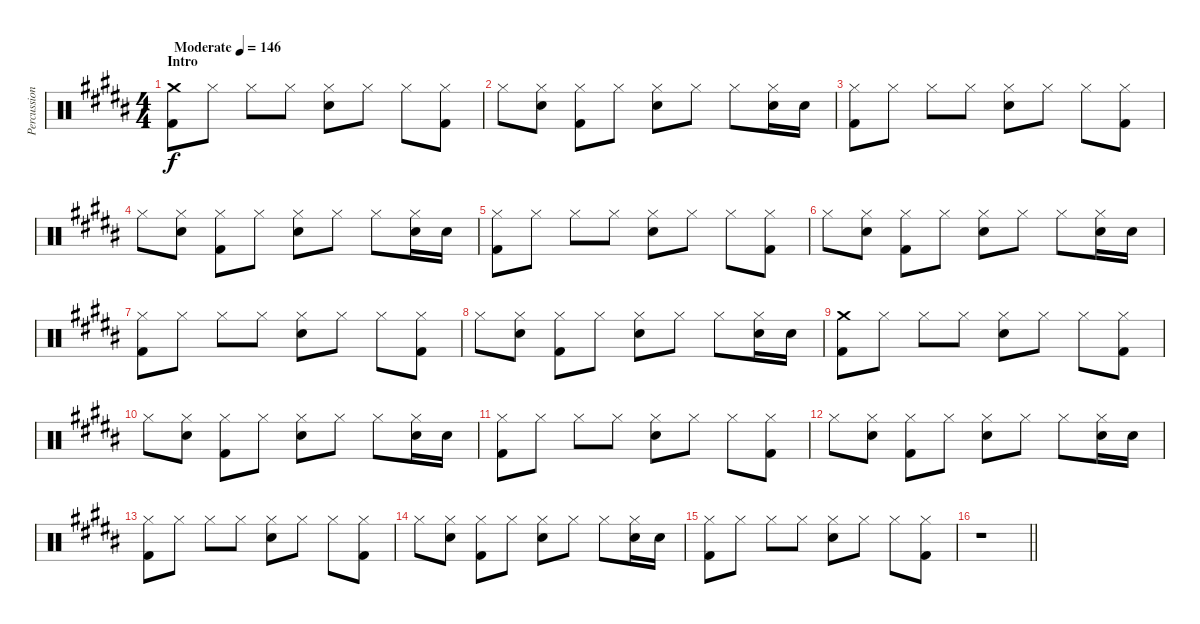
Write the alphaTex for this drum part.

\track ("Percussion" "Percussion") {instrument percussion}
\staff {score}
\articulation defaults
\ts (4 4)
\section ("" "Intro")
\tempo (146 "Moderate")
\clef neutral
\ks b
("Crash medium (hit)" "Kick (hit) 2").8{dy f} "Hi-Hat (closed)".8 "Hi-Hat (closed)".8 "Hi-Hat (closed)".8 ("Hi-Hat (closed)" "Snare (hit) 2").8 "Hi-Hat (closed)".8 "Hi-Hat (closed)".8 ("Hi-Hat (closed)" "Kick (hit) 2").8 |
"Hi-Hat (closed)".8 ("Hi-Hat (closed)" "Snare (hit) 2").8 ("Hi-Hat (closed)" "Kick (hit) 2").8 "Hi-Hat (closed)".8 ("Hi-Hat (closed)" "Snare (hit) 2").8 "Hi-Hat (closed)".8 "Hi-Hat (closed)".8 ("Hi-Hat (closed)" "Snare (hit) 2").16 "Snare (hit) 2".16 |
("Hi-Hat (closed)" "Kick (hit) 2").8 "Hi-Hat (closed)".8 "Hi-Hat (closed)".8 "Hi-Hat (closed)".8 ("Hi-Hat (closed)" "Snare (hit) 2").8 "Hi-Hat (closed)".8 "Hi-Hat (closed)".8 ("Hi-Hat (closed)" "Kick (hit) 2").8 |
"Hi-Hat (closed)".8 ("Hi-Hat (closed)" "Snare (hit) 2").8 ("Hi-Hat (closed)" "Kick (hit) 2").8 "Hi-Hat (closed)".8 ("Hi-Hat (closed)" "Snare (hit) 2").8 "Hi-Hat (closed)".8 "Hi-Hat (closed)".8 ("Hi-Hat (closed)" "Snare (hit) 2").16 "Snare (hit) 2".16 |
("Hi-Hat (closed)" "Kick (hit) 2").8 "Hi-Hat (closed)".8 "Hi-Hat (closed)".8 "Hi-Hat (closed)".8 ("Hi-Hat (closed)" "Snare (hit) 2").8 "Hi-Hat (closed)".8 "Hi-Hat (closed)".8 ("Hi-Hat (closed)" "Kick (hit) 2").8 |
"Hi-Hat (closed)".8 ("Hi-Hat (closed)" "Snare (hit) 2").8 ("Hi-Hat (closed)" "Kick (hit) 2").8 "Hi-Hat (closed)".8 ("Hi-Hat (closed)" "Snare (hit) 2").8 "Hi-Hat (closed)".8 "Hi-Hat (closed)".8 ("Hi-Hat (closed)" "Snare (hit) 2").16 "Snare (hit) 2".16 |
("Hi-Hat (closed)" "Kick (hit) 2").8 "Hi-Hat (closed)".8 "Hi-Hat (closed)".8 "Hi-Hat (closed)".8 ("Hi-Hat (closed)" "Snare (hit) 2").8 "Hi-Hat (closed)".8 "Hi-Hat (closed)".8 ("Hi-Hat (closed)" "Kick (hit) 2").8 |
"Hi-Hat (closed)".8 ("Hi-Hat (closed)" "Snare (hit) 2").8 ("Hi-Hat (closed)" "Kick (hit) 2").8 "Hi-Hat (closed)".8 ("Hi-Hat (closed)" "Snare (hit) 2").8 "Hi-Hat (closed)".8 "Hi-Hat (closed)".8 ("Hi-Hat (closed)" "Snare (hit) 2").16 "Snare (hit) 2".16 |
("Crash medium (hit)" "Kick (hit) 2").8 "Hi-Hat (closed)".8 "Hi-Hat (closed)".8 "Hi-Hat (closed)".8 ("Hi-Hat (closed)" "Snare (hit) 2").8 "Hi-Hat (closed)".8 "Hi-Hat (closed)".8 ("Hi-Hat (closed)" "Kick (hit) 2").8 |
"Hi-Hat (closed)".8 ("Hi-Hat (closed)" "Snare (hit) 2").8 ("Hi-Hat (closed)" "Kick (hit) 2").8 "Hi-Hat (closed)".8 ("Hi-Hat (closed)" "Snare (hit) 2").8 "Hi-Hat (closed)".8 "Hi-Hat (closed)".8 ("Hi-Hat (closed)" "Snare (hit) 2").16 "Snare (hit) 2".16 |
("Hi-Hat (closed)" "Kick (hit) 2").8 "Hi-Hat (closed)".8 "Hi-Hat (closed)".8 "Hi-Hat (closed)".8 ("Hi-Hat (closed)" "Snare (hit) 2").8 "Hi-Hat (closed)".8 "Hi-Hat (closed)".8 ("Hi-Hat (closed)" "Kick (hit) 2").8 |
"Hi-Hat (closed)".8 ("Hi-Hat (closed)" "Snare (hit) 2").8 ("Hi-Hat (closed)" "Kick (hit) 2").8 "Hi-Hat (closed)".8 ("Hi-Hat (closed)" "Snare (hit) 2").8 "Hi-Hat (closed)".8 "Hi-Hat (closed)".8 ("Hi-Hat (closed)" "Snare (hit) 2").16 "Snare (hit) 2".16 |
("Hi-Hat (closed)" "Kick (hit) 2").8 "Hi-Hat (closed)".8 "Hi-Hat (closed)".8 "Hi-Hat (closed)".8 ("Hi-Hat (closed)" "Snare (hit) 2").8 "Hi-Hat (closed)".8 "Hi-Hat (closed)".8 ("Hi-Hat (closed)" "Kick (hit) 2").8 |
"Hi-Hat (closed)".8 ("Hi-Hat (closed)" "Snare (hit) 2").8 ("Hi-Hat (closed)" "Kick (hit) 2").8 "Hi-Hat (closed)".8 ("Hi-Hat (closed)" "Snare (hit) 2").8 "Hi-Hat (closed)".8 "Hi-Hat (closed)".8 ("Hi-Hat (closed)" "Snare (hit) 2").16 "Snare (hit) 2".16 |
("Hi-Hat (closed)" "Kick (hit) 2").8 "Hi-Hat (closed)".8 "Hi-Hat (closed)".8 "Hi-Hat (closed)".8 ("Hi-Hat (closed)" "Snare (hit) 2").8 "Hi-Hat (closed)".8 "Hi-Hat (closed)".8 ("Hi-Hat (closed)" "Kick (hit) 2").8 |
\barLineRight lightlight
r.1
